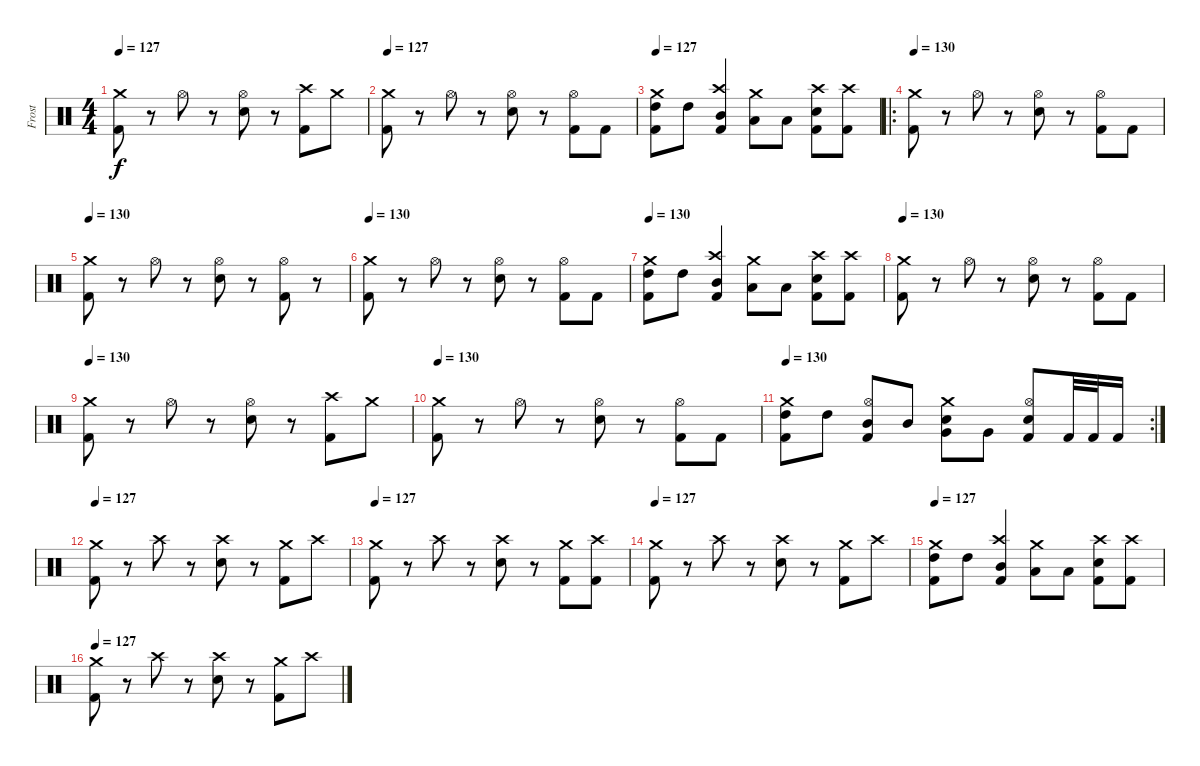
\track ("Frost" "Frost") {instrument percussion}
\staff {score}
\articulation defaults
\ts (4 4)
\tempo 127
\clef neutral
\ks c
("Crash medium (hit)" "Kick (hit) 2").8{dy f} r.8 "Hi-Hat (open)".8 r.8 ("Hi-Hat (open)" "Electric Snare (hit)").8 r.8 ("Crash high (hit)" "Kick (hit) 2").8 "Crash medium (hit)".8 |
\tempo 127
("Crash medium (hit)" "Kick (hit) 2").8 r.8 "Hi-Hat (open)".8 r.8 ("Hi-Hat (open)" "Electric Snare (hit)").8 r.8 ("Hi-Hat (open)" "Kick (hit) 2").8 "Kick (hit) 2".8 |
\tempo 127
("Crash medium (hit)" "High Tom (hit)" "Kick (hit) 2").8 "High Tom (hit)".8 ("Crash high (hit)" "Mid Tom (hit)" "Kick (hit) 2").4 ("Crash medium (hit)" "Low Tom (hit)").8 "Low Tom (hit)".8 ("Crash high (hit)" "Electric Snare (hit)" "Kick (hit) 2").8 ("Crash high (hit)" "Kick (hit) 2").8 |
\ro
\tempo 130
("Crash medium (hit)" "Kick (hit) 2").8 r.8 "Hi-Hat (open)".8 r.8 ("Hi-Hat (open)" "Electric Snare (hit)").8 r.8 ("Hi-Hat (open)" "Kick (hit) 2").8 "Kick (hit) 2".8 |
\tempo 130
("Crash medium (hit)" "Kick (hit) 2").8 r.8 "Hi-Hat (open)".8 r.8 ("Hi-Hat (open)" "Electric Snare (hit)").8 r.8 ("Hi-Hat (open)" "Kick (hit) 2").8 r.8 |
\tempo 130
("Crash medium (hit)" "Kick (hit) 2").8 r.8 "Hi-Hat (open)".8 r.8 ("Hi-Hat (open)" "Electric Snare (hit)").8 r.8 ("Hi-Hat (open)" "Kick (hit) 2").8 "Kick (hit) 2".8 |
\tempo 130
("Crash medium (hit)" "High Tom (hit)" "Kick (hit) 2").8 "High Tom (hit)".8 ("Crash high (hit)" "Mid Tom (hit)" "Kick (hit) 2").4 ("Crash medium (hit)" "Low Tom (hit)").8 "Low Tom (hit)".8 ("Crash high (hit)" "Electric Snare (hit)" "Kick (hit) 2").8 ("Crash high (hit)" "Kick (hit) 2").8 |
\tempo 130
("Crash medium (hit)" "Kick (hit) 2").8 r.8 "Hi-Hat (open)".8 r.8 ("Hi-Hat (open)" "Electric Snare (hit)").8 r.8 ("Hi-Hat (open)" "Kick (hit) 2").8 "Kick (hit) 2".8 |
\tempo 130
("Crash medium (hit)" "Kick (hit) 2").8 r.8 "Hi-Hat (open)".8 r.8 ("Hi-Hat (open)" "Electric Snare (hit)").8 r.8 ("Crash high (hit)" "Kick (hit) 2").8 "Crash medium (hit)".8 |
\tempo 130
("Crash medium (hit)" "Kick (hit) 2").8 r.8 "Hi-Hat (open)".8 r.8 ("Hi-Hat (open)" "Electric Snare (hit)").8 r.8 ("Hi-Hat (open)" "Kick (hit) 2").8 "Kick (hit) 2".8 |
\rc 2
\tempo 130
("Crash medium (hit)" "High Tom (hit)" "Kick (hit) 2").8 "High Tom (hit)".8 ("Hi-Hat (open)" "Mid Tom (hit)" "Kick (hit) 2").8 "Mid Tom (hit)".8 ("Crash medium (hit)" "Very Low Tom (hit)" "Electric Snare (hit)").8 "Very Low Tom (hit)".8 ("Hi-Hat (open)" "Electric Snare (hit)" "Kick (hit) 2").8 "Kick (hit) 2".32 "Kick (hit) 2".32 "Kick (hit) 2".16 |
\tempo 127
("Crash medium (hit)" "Kick (hit) 2").8 r.8 "Crash high (hit)".8 r.8 ("Crash high (hit)" "Electric Snare (hit)").8 r.8 ("Crash medium (hit)" "Kick (hit) 2").8 "Crash high (hit)".8 |
\tempo 127
("Crash medium (hit)" "Kick (hit) 2").8 r.8 "Crash high (hit)".8 r.8 ("Crash high (hit)" "Electric Snare (hit)").8 r.8 ("Crash medium (hit)" "Kick (hit) 2").8 ("Crash high (hit)" "Kick (hit) 2").8 |
\tempo 127
("Crash medium (hit)" "Kick (hit) 2").8 r.8 "Crash high (hit)".8 r.8 ("Crash high (hit)" "Electric Snare (hit)").8 r.8 ("Crash medium (hit)" "Kick (hit) 2").8 "Crash high (hit)".8 |
\tempo 127
("Crash medium (hit)" "High Tom (hit)" "Kick (hit) 2").8 "High Tom (hit)".8 ("Crash high (hit)" "Mid Tom (hit)" "Kick (hit) 2").4 ("Crash medium (hit)" "Low Tom (hit)").8 "Low Tom (hit)".8 ("Crash high (hit)" "Electric Snare (hit)" "Kick (hit) 2").8 ("Crash high (hit)" "Kick (hit) 2").8 |
\tempo 127
("Crash medium (hit)" "Kick (hit) 2").8 r.8 "Crash high (hit)".8 r.8 ("Crash high (hit)" "Electric Snare (hit)").8 r.8 ("Crash medium (hit)" "Kick (hit) 2").8 "Crash high (hit)".8
